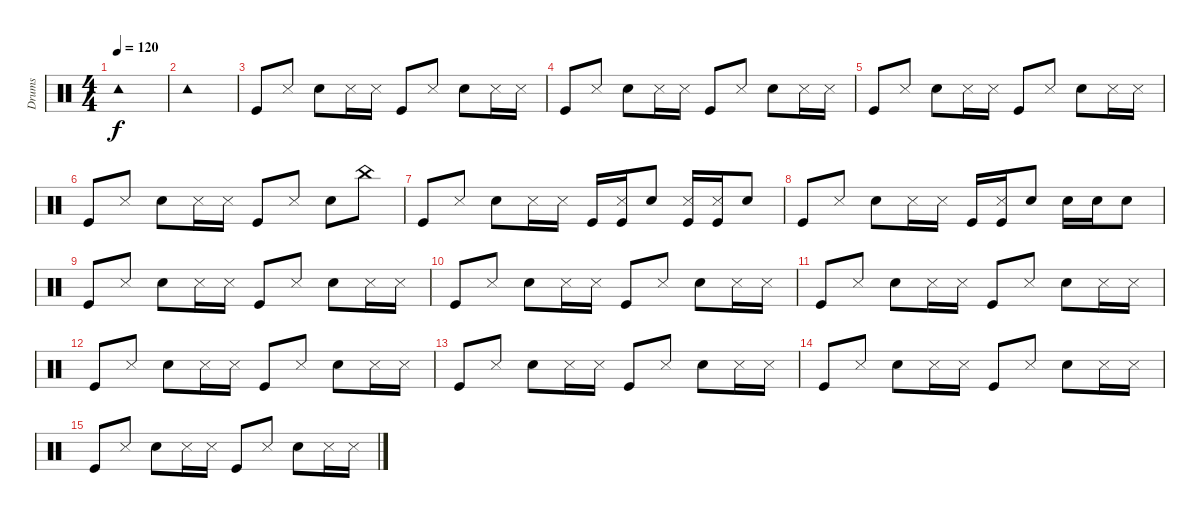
\track ("Drums" "Drums") {instrument percussion}
\staff {score}
\articulation defaults
\ts (4 4)
\tempo 120
\clef neutral
\ks c "Tambourine (hit)".1{dy f}
|
"Tambourine (hit)".1 |
"Kick (hit)".8 "Snare (side stick) 3".8 "Electric Snare (hit)".8 "Snare (side stick) 3".16 "Snare (side stick) 3".16 "Kick (hit)".8 "Snare (side stick) 3".8 "Electric Snare (hit)".8 "Snare (side stick) 3".16 "Snare (side stick) 3".16 |
"Kick (hit)".8 "Snare (side stick) 3".8 "Electric Snare (hit)".8 "Snare (side stick) 3".16 "Snare (side stick) 3".16 "Kick (hit)".8 "Snare (side stick) 3".8 "Electric Snare (hit)".8 "Snare (side stick) 3".16 "Snare (side stick) 3".16 |
"Kick (hit)".8 "Snare (side stick) 3".8 "Electric Snare (hit)".8 "Snare (side stick) 3".16 "Snare (side stick) 3".16 "Kick (hit)".8 "Snare (side stick) 3".8 "Electric Snare (hit)".8 "Snare (side stick) 3".16 "Snare (side stick) 3".16 |
"Kick (hit)".8 "Snare (side stick) 3".8 "Electric Snare (hit)".8 "Snare (side stick) 3".16 "Snare (side stick) 3".16 "Kick (hit)".8 "Snare (side stick) 3".8 "Electric Snare (hit)".8 "China (hit)".8 |
"Kick (hit)".8 "Snare (side stick) 3".8 "Electric Snare (hit)".8 "Snare (side stick) 3".16 "Snare (side stick) 3".16 "Kick (hit)".16 ("Snare (side stick) 3" "Kick (hit)").16 "Electric Snare (hit)".8 ("Snare (side stick) 3" "Kick (hit)").16 ("Snare (side stick) 3" "Kick (hit)").16 "Electric Snare (hit)".8 |
"Kick (hit)".8 "Snare (side stick) 3".8 "Electric Snare (hit)".8 "Snare (side stick) 3".16 "Snare (side stick) 3".16 "Kick (hit)".16 ("Snare (side stick) 3" "Kick (hit)").16 "Electric Snare (hit)".8 "Electric Snare (hit)".16 "Electric Snare (hit)".16 "Electric Snare (hit)".8 |
"Kick (hit)".8 "Snare (side stick) 3".8 "Electric Snare (hit)".8 "Snare (side stick) 3".16 "Snare (side stick) 3".16 "Kick (hit)".8 "Snare (side stick) 3".8 "Electric Snare (hit)".8 "Snare (side stick) 3".16 "Snare (side stick) 3".16 |
"Kick (hit)".8 "Snare (side stick) 3".8 "Electric Snare (hit)".8 "Snare (side stick) 3".16 "Snare (side stick) 3".16 "Kick (hit)".8 "Snare (side stick) 3".8 "Electric Snare (hit)".8 "Snare (side stick) 3".16 "Snare (side stick) 3".16 |
"Kick (hit)".8 "Snare (side stick) 3".8 "Electric Snare (hit)".8 "Snare (side stick) 3".16 "Snare (side stick) 3".16 "Kick (hit)".8 "Snare (side stick) 3".8 "Electric Snare (hit)".8 "Snare (side stick) 3".16 "Snare (side stick) 3".16 |
"Kick (hit)".8 "Snare (side stick) 3".8 "Electric Snare (hit)".8 "Snare (side stick) 3".16 "Snare (side stick) 3".16 "Kick (hit)".8 "Snare (side stick) 3".8 "Electric Snare (hit)".8 "Snare (side stick) 3".16 "Snare (side stick) 3".16 |
"Kick (hit)".8 "Snare (side stick) 3".8 "Electric Snare (hit)".8 "Snare (side stick) 3".16 "Snare (side stick) 3".16 "Kick (hit)".8 "Snare (side stick) 3".8 "Electric Snare (hit)".8 "Snare (side stick) 3".16 "Snare (side stick) 3".16 |
"Kick (hit)".8 "Snare (side stick) 3".8 "Electric Snare (hit)".8 "Snare (side stick) 3".16 "Snare (side stick) 3".16 "Kick (hit)".8 "Snare (side stick) 3".8 "Electric Snare (hit)".8 "Snare (side stick) 3".16 "Snare (side stick) 3".16 |
"Kick (hit)".8 "Snare (side stick) 3".8 "Electric Snare (hit)".8 "Snare (side stick) 3".16 "Snare (side stick) 3".16 "Kick (hit)".8 "Snare (side stick) 3".8 "Electric Snare (hit)".8 "Snare (side stick) 3".16 "Snare (side stick) 3".16
